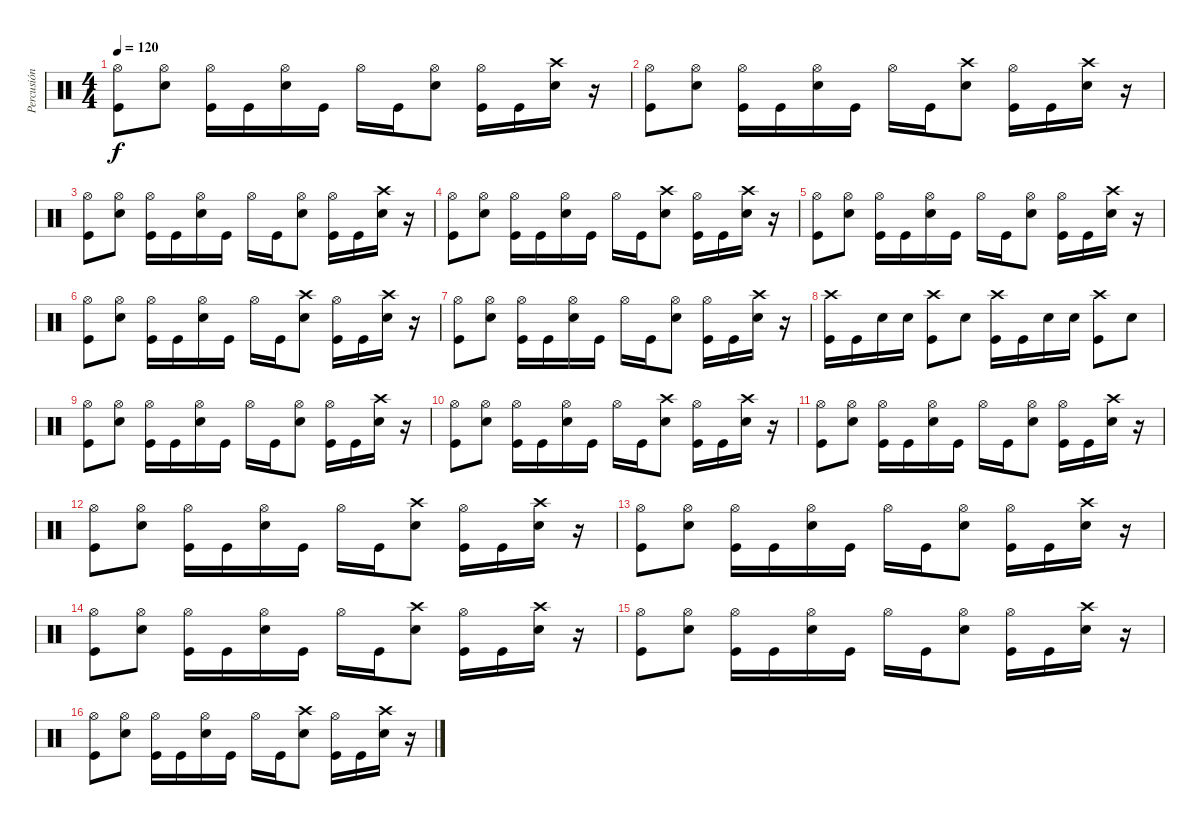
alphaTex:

\track ("Percusión" "Percusión") {instrument percussion}
\staff {score}
\articulation defaults
\ts (4 4)
\tempo 120
\clef neutral
\ks c
("Hi-Hat (open)" "Kick (hit)").8{dy f} ("Hi-Hat (open)" "Snare (hit) 2").8 ("Hi-Hat (open)" "Kick (hit)").16 "Kick (hit)".16 ("Hi-Hat (open)" "Snare (hit) 2").16 "Kick (hit)".16 "Hi-Hat (open)".16 "Kick (hit)".16 ("Hi-Hat (open)" "Snare (hit) 2").8 ("Hi-Hat (open)" "Kick (hit)").16 "Kick (hit)".16 ("Crash high (hit)" "Snare (hit) 2").16 r.16 |
("Hi-Hat (open)" "Kick (hit)").8 ("Hi-Hat (open)" "Snare (hit) 2").8 ("Hi-Hat (open)" "Kick (hit)").16 "Kick (hit)".16 ("Hi-Hat (open)" "Snare (hit) 2").16 "Kick (hit)".16 "Hi-Hat (open)".16 "Kick (hit)".16 ("Crash high (hit)" "Snare (hit) 2").8 ("Hi-Hat (open)" "Kick (hit)").16 "Kick (hit)".16 ("Crash high (hit)" "Snare (hit) 2").16 r.16 |
("Hi-Hat (open)" "Kick (hit)").8 ("Hi-Hat (open)" "Snare (hit) 2").8 ("Hi-Hat (open)" "Kick (hit)").16 "Kick (hit)".16 ("Hi-Hat (open)" "Snare (hit) 2").16 "Kick (hit)".16 "Hi-Hat (open)".16 "Kick (hit)".16 ("Hi-Hat (open)" "Snare (hit) 2").8 ("Hi-Hat (open)" "Kick (hit)").16 "Kick (hit)".16 ("Crash high (hit)" "Snare (hit) 2").16 r.16 |
("Hi-Hat (open)" "Kick (hit)").8 ("Hi-Hat (open)" "Snare (hit) 2").8 ("Hi-Hat (open)" "Kick (hit)").16 "Kick (hit)".16 ("Hi-Hat (open)" "Snare (hit) 2").16 "Kick (hit)".16 "Hi-Hat (open)".16 "Kick (hit)".16 ("Crash high (hit)" "Snare (hit) 2").8 ("Hi-Hat (open)" "Kick (hit)").16 "Kick (hit)".16 ("Crash high (hit)" "Snare (hit) 2").16 r.16 |
("Hi-Hat (open)" "Kick (hit)").8 ("Hi-Hat (open)" "Snare (hit) 2").8 ("Hi-Hat (open)" "Kick (hit)").16 "Kick (hit)".16 ("Hi-Hat (open)" "Snare (hit) 2").16 "Kick (hit)".16 "Hi-Hat (open)".16 "Kick (hit)".16 ("Hi-Hat (open)" "Snare (hit) 2").8 ("Hi-Hat (open)" "Kick (hit)").16 "Kick (hit)".16 ("Crash high (hit)" "Snare (hit) 2").16 r.16 |
("Hi-Hat (open)" "Kick (hit)").8 ("Hi-Hat (open)" "Snare (hit) 2").8 ("Hi-Hat (open)" "Kick (hit)").16 "Kick (hit)".16 ("Hi-Hat (open)" "Snare (hit) 2").16 "Kick (hit)".16 "Hi-Hat (open)".16 "Kick (hit)".16 ("Crash high (hit)" "Snare (hit) 2").8 ("Hi-Hat (open)" "Kick (hit)").16 "Kick (hit)".16 ("Crash high (hit)" "Snare (hit) 2").16 r.16 |
("Hi-Hat (open)" "Kick (hit)").8 ("Hi-Hat (open)" "Snare (hit) 2").8 ("Hi-Hat (open)" "Kick (hit)").16 "Kick (hit)".16 ("Hi-Hat (open)" "Snare (hit) 2").16 "Kick (hit)".16 "Hi-Hat (open)".16 "Kick (hit)".16 ("Hi-Hat (open)" "Snare (hit) 2").8 ("Hi-Hat (open)" "Kick (hit)").16 "Kick (hit)".16 ("Crash high (hit)" "Snare (hit) 2").16 r.16 |
("Crash high (hit)" "Kick (hit)").16 "Kick (hit)".16 "Snare (hit) 2".16 "Snare (hit) 2".16 ("Crash high (hit)" "Kick (hit)").8 "Snare (hit) 2".8 ("Crash high (hit)" "Kick (hit)").16 "Kick (hit)".16 "Snare (hit) 2".16 "Snare (hit) 2".16 ("Crash high (hit)" "Kick (hit)").8 "Snare (hit) 2".8 |
("Hi-Hat (open)" "Kick (hit)").8 ("Hi-Hat (open)" "Snare (hit) 2").8 ("Hi-Hat (open)" "Kick (hit)").16 "Kick (hit)".16 ("Hi-Hat (open)" "Snare (hit) 2").16 "Kick (hit)".16 "Hi-Hat (open)".16 "Kick (hit)".16 ("Hi-Hat (open)" "Snare (hit) 2").8 ("Hi-Hat (open)" "Kick (hit)").16 "Kick (hit)".16 ("Crash high (hit)" "Snare (hit) 2").16 r.16 |
("Hi-Hat (open)" "Kick (hit)").8 ("Hi-Hat (open)" "Snare (hit) 2").8 ("Hi-Hat (open)" "Kick (hit)").16 "Kick (hit)".16 ("Hi-Hat (open)" "Snare (hit) 2").16 "Kick (hit)".16 "Hi-Hat (open)".16 "Kick (hit)".16 ("Crash high (hit)" "Snare (hit) 2").8 ("Hi-Hat (open)" "Kick (hit)").16 "Kick (hit)".16 ("Crash high (hit)" "Snare (hit) 2").16 r.16 |
("Hi-Hat (open)" "Kick (hit)").8 ("Hi-Hat (open)" "Snare (hit) 2").8 ("Hi-Hat (open)" "Kick (hit)").16 "Kick (hit)".16 ("Hi-Hat (open)" "Snare (hit) 2").16 "Kick (hit)".16 "Hi-Hat (open)".16 "Kick (hit)".16 ("Hi-Hat (open)" "Snare (hit) 2").8 ("Hi-Hat (open)" "Kick (hit)").16 "Kick (hit)".16 ("Crash high (hit)" "Snare (hit) 2").16 r.16 |
("Hi-Hat (open)" "Kick (hit)").8 ("Hi-Hat (open)" "Snare (hit) 2").8 ("Hi-Hat (open)" "Kick (hit)").16 "Kick (hit)".16 ("Hi-Hat (open)" "Snare (hit) 2").16 "Kick (hit)".16 "Hi-Hat (open)".16 "Kick (hit)".16 ("Crash high (hit)" "Snare (hit) 2").8 ("Hi-Hat (open)" "Kick (hit)").16 "Kick (hit)".16 ("Crash high (hit)" "Snare (hit) 2").16 r.16 |
("Hi-Hat (open)" "Kick (hit)").8 ("Hi-Hat (open)" "Snare (hit) 2").8 ("Hi-Hat (open)" "Kick (hit)").16 "Kick (hit)".16 ("Hi-Hat (open)" "Snare (hit) 2").16 "Kick (hit)".16 "Hi-Hat (open)".16 "Kick (hit)".16 ("Hi-Hat (open)" "Snare (hit) 2").8 ("Hi-Hat (open)" "Kick (hit)").16 "Kick (hit)".16 ("Crash high (hit)" "Snare (hit) 2").16 r.16 |
("Hi-Hat (open)" "Kick (hit)").8 ("Hi-Hat (open)" "Snare (hit) 2").8 ("Hi-Hat (open)" "Kick (hit)").16 "Kick (hit)".16 ("Hi-Hat (open)" "Snare (hit) 2").16 "Kick (hit)".16 "Hi-Hat (open)".16 "Kick (hit)".16 ("Crash high (hit)" "Snare (hit) 2").8 ("Hi-Hat (open)" "Kick (hit)").16 "Kick (hit)".16 ("Crash high (hit)" "Snare (hit) 2").16 r.16 |
("Hi-Hat (open)" "Kick (hit)").8 ("Hi-Hat (open)" "Snare (hit) 2").8 ("Hi-Hat (open)" "Kick (hit)").16 "Kick (hit)".16 ("Hi-Hat (open)" "Snare (hit) 2").16 "Kick (hit)".16 "Hi-Hat (open)".16 "Kick (hit)".16 ("Hi-Hat (open)" "Snare (hit) 2").8 ("Hi-Hat (open)" "Kick (hit)").16 "Kick (hit)".16 ("Crash high (hit)" "Snare (hit) 2").16 r.16 |
("Hi-Hat (open)" "Kick (hit)").8 ("Hi-Hat (open)" "Snare (hit) 2").8 ("Hi-Hat (open)" "Kick (hit)").16 "Kick (hit)".16 ("Hi-Hat (open)" "Snare (hit) 2").16 "Kick (hit)".16 "Hi-Hat (open)".16 "Kick (hit)".16 ("Crash high (hit)" "Snare (hit) 2").8 ("Hi-Hat (open)" "Kick (hit)").16 "Kick (hit)".16 ("Crash high (hit)" "Snare (hit) 2").16 r.16
